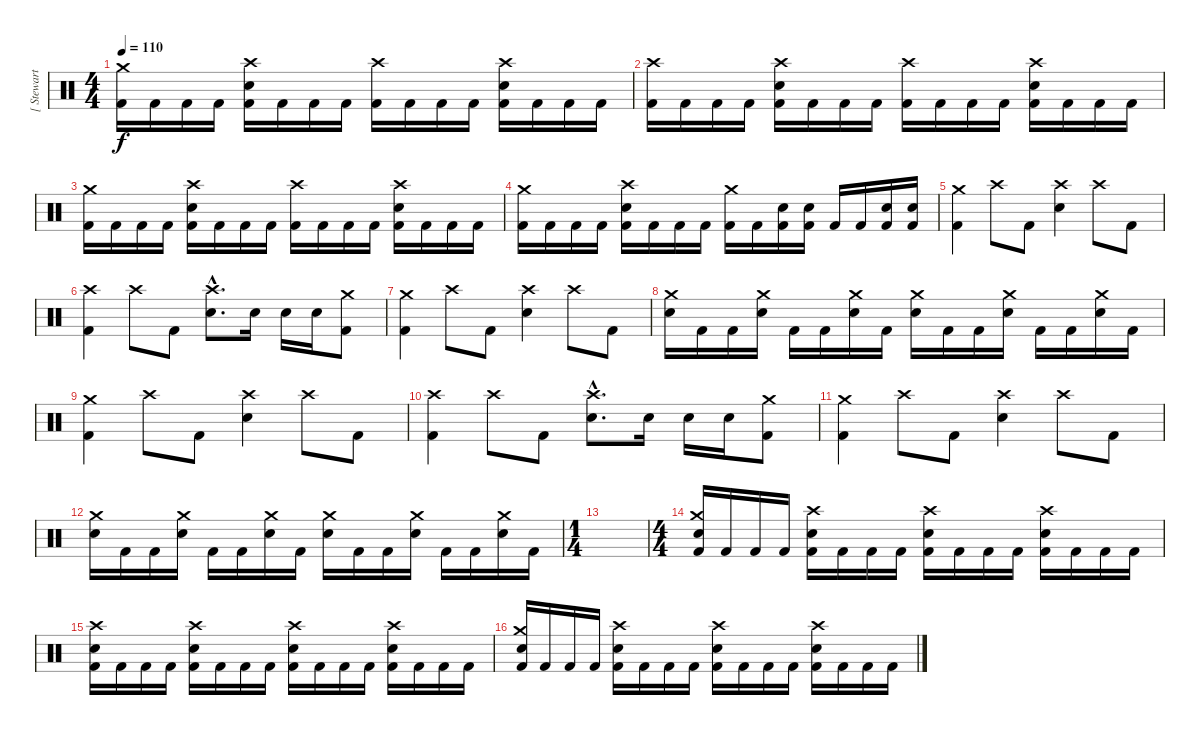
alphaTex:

\track ("[ Stewart ]" "[ Stewart ") {instrument percussion}
\staff {score}
\articulation defaults
\ts (4 4)
\tempo 110
\clef neutral
\ks c
("Kick (hit) 2" "Crash medium (hit)").16{dy f} "Kick (hit) 2".16 "Kick (hit) 2".16 "Kick (hit) 2".16 ("Kick (hit) 2" "Electric Snare (hit)" "Crash high (hit)").16 "Kick (hit) 2".16 "Kick (hit) 2".16 "Kick (hit) 2".16 ("Kick (hit) 2" "Crash high (hit)").16 "Kick (hit) 2".16 "Kick (hit) 2".16 "Kick (hit) 2".16 ("Kick (hit) 2" "Electric Snare (hit)" "Crash high (hit)").16 "Kick (hit) 2".16 "Kick (hit) 2".16 "Kick (hit) 2".16 |
("Kick (hit) 2" "Crash high (hit)").16 "Kick (hit) 2".16 "Kick (hit) 2".16 "Kick (hit) 2".16 ("Kick (hit) 2" "Electric Snare (hit)" "Crash high (hit)").16 "Kick (hit) 2".16 "Kick (hit) 2".16 "Kick (hit) 2".16 ("Kick (hit) 2" "Crash high (hit)").16 "Kick (hit) 2".16 "Kick (hit) 2".16 "Kick (hit) 2".16 ("Kick (hit) 2" "Electric Snare (hit)" "Crash high (hit)").16 "Kick (hit) 2".16 "Kick (hit) 2".16 "Kick (hit) 2".16 |
("Kick (hit) 2" "Crash medium (hit)").16 "Kick (hit) 2".16 "Kick (hit) 2".16 "Kick (hit) 2".16 ("Kick (hit) 2" "Electric Snare (hit)" "Crash high (hit)").16 "Kick (hit) 2".16 "Kick (hit) 2".16 "Kick (hit) 2".16 ("Kick (hit) 2" "Crash high (hit)").16 "Kick (hit) 2".16 "Kick (hit) 2".16 "Kick (hit) 2".16 ("Kick (hit) 2" "Electric Snare (hit)" "Crash high (hit)").16 "Kick (hit) 2".16 "Kick (hit) 2".16 "Kick (hit) 2".16 |
("Kick (hit) 2" "Crash medium (hit)").16 "Kick (hit) 2".16 "Kick (hit) 2".16 "Kick (hit) 2".16 ("Kick (hit) 2" "Electric Snare (hit)" "Crash high (hit)").16 "Kick (hit) 2".16 "Kick (hit) 2".16 "Kick (hit) 2".16 ("Kick (hit) 2" "Crash medium (hit)").16 "Kick (hit) 2".16 ("Kick (hit) 2" "Electric Snare (hit)").16 ("Kick (hit) 2" "Electric Snare (hit)").16 "Kick (hit) 2".16 "Kick (hit) 2".16 ("Kick (hit) 2" "Electric Snare (hit)").16 ("Kick (hit) 2" "Electric Snare (hit)").16 |
("Kick (hit) 2" "Crash medium (hit)").4 "Crash high (hit)".8 "Kick (hit) 2".8 ("Electric Snare (hit)" "Crash high (hit)").4 "Crash high (hit)".8 "Kick (hit) 2".8 |
("Kick (hit) 2" "Crash high (hit)").4 "Crash high (hit)".8 "Kick (hit) 2".8 ("Electric Snare (hit)"{hac} "Crash high (hit)"{hac}).8{d} "Electric Snare (hit)".16 "Electric Snare (hit)".16 "Electric Snare (hit)".16 ("Kick (hit) 2" "Crash medium (hit)").8 |
("Kick (hit) 2" "Crash medium (hit)").4 "Crash high (hit)".8 "Kick (hit) 2".8 ("Electric Snare (hit)" "Crash high (hit)").4 "Crash high (hit)".8 "Kick (hit) 2".8 |
("Electric Snare (hit)" "Crash medium (hit)").16 "Kick (hit) 2".16 "Kick (hit) 2".16 ("Electric Snare (hit)" "Crash medium (hit)").16 "Kick (hit) 2".16 "Kick (hit) 2".16 ("Electric Snare (hit)" "Crash medium (hit)").16 "Kick (hit) 2".16 ("Electric Snare (hit)" "Crash medium (hit)").16 "Kick (hit) 2".16 "Kick (hit) 2".16 ("Electric Snare (hit)" "Crash medium (hit)").16 "Kick (hit) 2".16 "Kick (hit) 2".16 ("Electric Snare (hit)" "Crash medium (hit)").16 "Kick (hit) 2".16 |
("Kick (hit) 2" "Crash medium (hit)").4 "Crash high (hit)".8 "Kick (hit) 2".8 ("Electric Snare (hit)" "Crash high (hit)").4 "Crash high (hit)".8 "Kick (hit) 2".8 |
("Kick (hit) 2" "Crash high (hit)").4 "Crash high (hit)".8 "Kick (hit) 2".8 ("Electric Snare (hit)"{hac} "Crash high (hit)"{hac}).8{d} "Electric Snare (hit)".16 "Electric Snare (hit)".16 "Electric Snare (hit)".16 ("Kick (hit) 2" "Crash medium (hit)").8 |
("Kick (hit) 2" "Crash medium (hit)").4 "Crash high (hit)".8 "Kick (hit) 2".8 ("Electric Snare (hit)" "Crash high (hit)").4 "Crash high (hit)".8 "Kick (hit) 2".8 |
("Electric Snare (hit)" "Crash medium (hit)").16 "Kick (hit) 2".16 "Kick (hit) 2".16 ("Electric Snare (hit)" "Crash medium (hit)").16 "Kick (hit) 2".16 "Kick (hit) 2".16 ("Electric Snare (hit)" "Crash medium (hit)").16 "Kick (hit) 2".16 ("Electric Snare (hit)" "Crash medium (hit)").16 "Kick (hit) 2".16 "Kick (hit) 2".16 ("Electric Snare (hit)" "Crash medium (hit)").16 "Kick (hit) 2".16 "Kick (hit) 2".16 ("Electric Snare (hit)" "Crash medium (hit)").16 "Kick (hit) 2".16 |
\ts (1 4)
|
\ts (4 4)
("Kick (hit) 2" "Electric Snare (hit)" "Crash medium (hit)").16 "Kick (hit) 2".16 "Kick (hit) 2".16 "Kick (hit) 2".16 ("Kick (hit) 2" "Electric Snare (hit)" "Crash high (hit)").16 "Kick (hit) 2".16 "Kick (hit) 2".16 "Kick (hit) 2".16 ("Kick (hit) 2" "Electric Snare (hit)" "Crash high (hit)").16 "Kick (hit) 2".16 "Kick (hit) 2".16 "Kick (hit) 2".16 ("Kick (hit) 2" "Electric Snare (hit)" "Crash high (hit)").16 "Kick (hit) 2".16 "Kick (hit) 2".16 "Kick (hit) 2".16 |
("Kick (hit) 2" "Electric Snare (hit)" "Crash high (hit)").16 "Kick (hit) 2".16 "Kick (hit) 2".16 "Kick (hit) 2".16 ("Kick (hit) 2" "Electric Snare (hit)" "Crash high (hit)").16 "Kick (hit) 2".16 "Kick (hit) 2".16 "Kick (hit) 2".16 ("Kick (hit) 2" "Electric Snare (hit)" "Crash high (hit)").16 "Kick (hit) 2".16 "Kick (hit) 2".16 "Kick (hit) 2".16 ("Kick (hit) 2" "Electric Snare (hit)" "Crash high (hit)").16 "Kick (hit) 2".16 "Kick (hit) 2".16 "Kick (hit) 2".16 |
("Kick (hit) 2" "Electric Snare (hit)" "Crash medium (hit)").16 "Kick (hit) 2".16 "Kick (hit) 2".16 "Kick (hit) 2".16 ("Kick (hit) 2" "Electric Snare (hit)" "Crash high (hit)").16 "Kick (hit) 2".16 "Kick (hit) 2".16 "Kick (hit) 2".16 ("Kick (hit) 2" "Electric Snare (hit)" "Crash high (hit)").16 "Kick (hit) 2".16 "Kick (hit) 2".16 "Kick (hit) 2".16 ("Kick (hit) 2" "Electric Snare (hit)" "Crash high (hit)").16 "Kick (hit) 2".16 "Kick (hit) 2".16 "Kick (hit) 2".16
